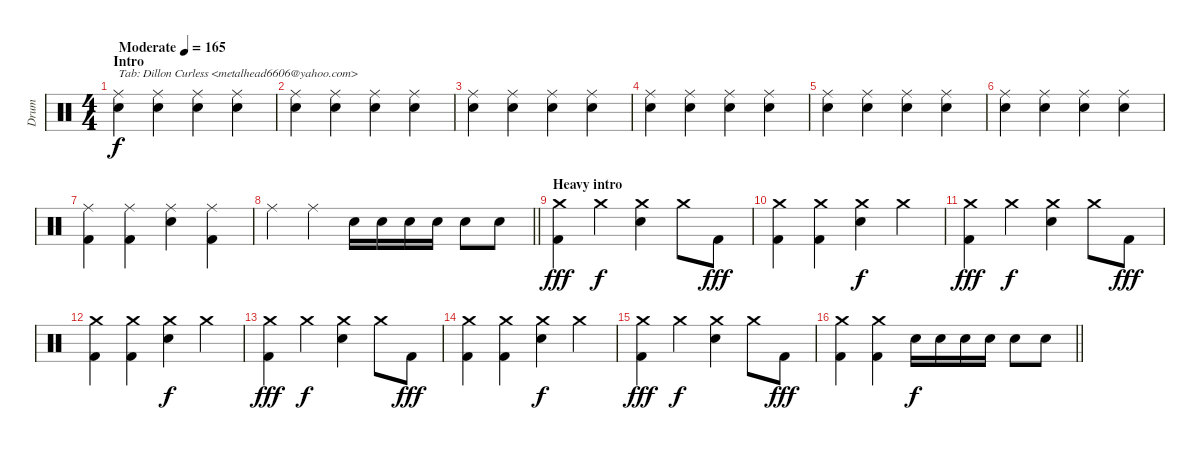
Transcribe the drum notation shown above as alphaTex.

\track ("Drum" "Drum") {instrument percussion}
\staff {score}
\articulation defaults
\ts (4 4)
\section ("" "Intro")
\tempo (165 "Moderate")
\clef neutral
\ks c
("Snare (hit) 2" "Ride (middle)").4{txt "Tab: Dillon Curless <metalhead6606@yahoo.com>" dy f} ("Snare (hit) 2" "Ride (middle)").4 ("Snare (hit) 2" "Ride (middle)").4 ("Snare (hit) 2" "Ride (middle)").4 |
("Snare (hit) 2" "Ride (middle)").4 ("Snare (hit) 2" "Ride (middle)").4 ("Snare (hit) 2" "Ride (middle)").4 ("Snare (hit) 2" "Ride (middle)").4 |
("Snare (hit) 2" "Ride (middle)").4 ("Snare (hit) 2" "Ride (middle)").4 ("Snare (hit) 2" "Ride (middle)").4 ("Snare (hit) 2" "Ride (middle)").4 |
("Snare (hit) 2" "Ride (middle)").4 ("Snare (hit) 2" "Ride (middle)").4 ("Snare (hit) 2" "Ride (middle)").4 ("Snare (hit) 2" "Ride (middle)").4 |
("Snare (hit) 2" "Ride (middle)").4 ("Snare (hit) 2" "Ride (middle)").4 ("Snare (hit) 2" "Ride (middle)").4 ("Snare (hit) 2" "Ride (middle)").4 |
("Snare (hit) 2" "Ride (middle)").4 ("Snare (hit) 2" "Ride (middle)").4 ("Snare (hit) 2" "Ride (middle)").4 ("Snare (hit) 2" "Ride (middle)").4 |
("Kick (hit) 2" "Ride (middle)").4 ("Kick (hit) 2" "Ride (middle)").4 ("Snare (hit) 2" "Ride (middle)").4 ("Kick (hit) 2" "Ride (middle)").4 |
\barLineRight lightlight "Ride (middle)".4 "Ride (middle)".4 "Snare (hit) 2".16 "Snare (hit) 2".16 "Snare (hit) 2".16 "Snare (hit) 2".16 "Snare (hit) 2".8 "Snare (hit) 2".8
|
\section ("" "Heavy intro")
("Kick (hit) 2" "Crash medium (hit)").4{dy fff} "Crash medium (hit)".4{dy f} ("Snare (hit) 2" "Crash medium (hit)").4 "Crash medium (hit)".8 "Kick (hit) 2".8{dy fff} |
("Kick (hit) 2" "Crash medium (hit)").4 ("Kick (hit) 2" "Crash medium (hit)").4 ("Snare (hit) 2" "Crash medium (hit)").4{dy f} "Crash medium (hit)".4 |
("Kick (hit) 2" "Crash medium (hit)").4{dy fff} "Crash medium (hit)".4{dy f} ("Snare (hit) 2" "Crash medium (hit)").4 "Crash medium (hit)".8 "Kick (hit) 2".8{dy fff} |
("Kick (hit) 2" "Crash medium (hit)").4 ("Kick (hit) 2" "Crash medium (hit)").4 ("Snare (hit) 2" "Crash medium (hit)").4{dy f} "Crash medium (hit)".4 |
("Kick (hit) 2" "Crash medium (hit)").4{dy fff} "Crash medium (hit)".4{dy f} ("Snare (hit) 2" "Crash medium (hit)").4 "Crash medium (hit)".8 "Kick (hit) 2".8{dy fff} |
("Kick (hit) 2" "Crash medium (hit)").4 ("Kick (hit) 2" "Crash medium (hit)").4 ("Snare (hit) 2" "Crash medium (hit)").4{dy f} "Crash medium (hit)".4 |
("Kick (hit) 2" "Crash medium (hit)").4{dy fff} "Crash medium (hit)".4{dy f} ("Snare (hit) 2" "Crash medium (hit)").4 "Crash medium (hit)".8 "Kick (hit) 2".8{dy fff} |
\barLineRight lightlight
("Kick (hit) 2" "Crash medium (hit)").4 ("Kick (hit) 2" "Crash medium (hit)").4 "Snare (hit) 2".16{dy f} "Snare (hit) 2".16 "Snare (hit) 2".16 "Snare (hit) 2".16 "Snare (hit) 2".8 "Snare (hit) 2".8
